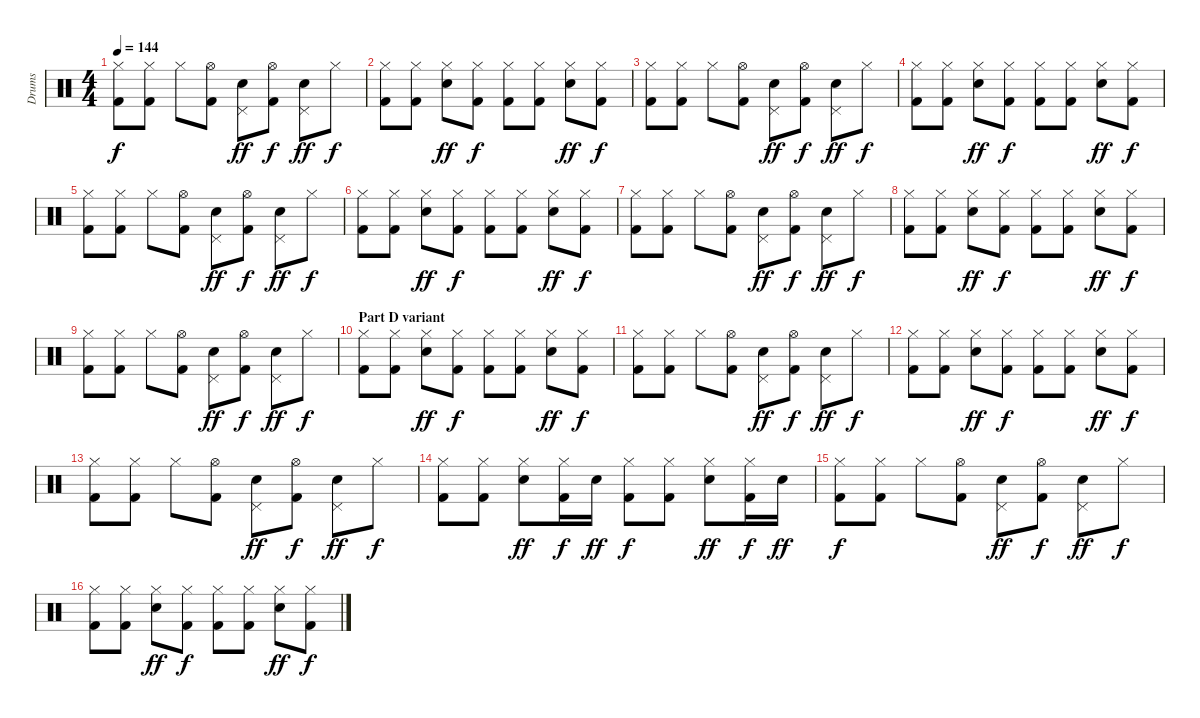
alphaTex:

\track ("Drums" "Drums") {instrument percussion}
\staff {score}
\articulation defaults
\ts (4 4)
\tempo 144
\clef neutral
\ks c
("Hi-Hat (closed)" "Kick (hit) 2").8{dy f} ("Hi-Hat (closed)" "Kick (hit) 2").8 "Hi-Hat (closed)".8 ("Hi-Hat (open)" "Kick (hit) 2").8 ("Pedal Hi-Hat (hit)" "Electric Snare (hit)").8{dy ff} ("Hi-Hat (open)" "Kick (hit) 2").8{dy f} ("Pedal Hi-Hat (hit)" "Electric Snare (hit)").8{dy ff} "Hi-Hat (closed)".8{dy f} |
("Hi-Hat (closed)" "Kick (hit) 2").8 ("Hi-Hat (closed)" "Kick (hit) 2").8 ("Hi-Hat (closed)" "Electric Snare (hit)").8{dy ff} ("Hi-Hat (closed)" "Kick (hit) 2").8{dy f} ("Hi-Hat (closed)" "Kick (hit) 2").8 ("Hi-Hat (closed)" "Kick (hit) 2").8 ("Hi-Hat (closed)" "Electric Snare (hit)").8{dy ff} ("Hi-Hat (closed)" "Kick (hit) 2").8{dy f} |
("Hi-Hat (closed)" "Kick (hit) 2").8 ("Hi-Hat (closed)" "Kick (hit) 2").8 "Hi-Hat (closed)".8 ("Hi-Hat (open)" "Kick (hit) 2").8 ("Pedal Hi-Hat (hit)" "Electric Snare (hit)").8{dy ff} ("Hi-Hat (open)" "Kick (hit) 2").8{dy f} ("Pedal Hi-Hat (hit)" "Electric Snare (hit)").8{dy ff} "Hi-Hat (closed)".8{dy f} |
("Hi-Hat (closed)" "Kick (hit) 2").8 ("Hi-Hat (closed)" "Kick (hit) 2").8 ("Hi-Hat (closed)" "Electric Snare (hit)").8{dy ff} ("Hi-Hat (closed)" "Kick (hit) 2").8{dy f} ("Hi-Hat (closed)" "Kick (hit) 2").8 ("Hi-Hat (closed)" "Kick (hit) 2").8 ("Hi-Hat (closed)" "Electric Snare (hit)").8{dy ff} ("Hi-Hat (closed)" "Kick (hit) 2").8{dy f} |
("Hi-Hat (closed)" "Kick (hit) 2").8 ("Hi-Hat (closed)" "Kick (hit) 2").8 "Hi-Hat (closed)".8 ("Hi-Hat (open)" "Kick (hit) 2").8 ("Pedal Hi-Hat (hit)" "Electric Snare (hit)").8{dy ff} ("Hi-Hat (open)" "Kick (hit) 2").8{dy f} ("Pedal Hi-Hat (hit)" "Electric Snare (hit)").8{dy ff} "Hi-Hat (closed)".8{dy f} |
("Hi-Hat (closed)" "Kick (hit) 2").8 ("Hi-Hat (closed)" "Kick (hit) 2").8 ("Hi-Hat (closed)" "Electric Snare (hit)").8{dy ff} ("Hi-Hat (closed)" "Kick (hit) 2").8{dy f} ("Hi-Hat (closed)" "Kick (hit) 2").8 ("Hi-Hat (closed)" "Kick (hit) 2").8 ("Hi-Hat (closed)" "Electric Snare (hit)").8{dy ff} ("Hi-Hat (closed)" "Kick (hit) 2").8{dy f} |
("Hi-Hat (closed)" "Kick (hit) 2").8 ("Hi-Hat (closed)" "Kick (hit) 2").8 "Hi-Hat (closed)".8 ("Hi-Hat (open)" "Kick (hit) 2").8 ("Pedal Hi-Hat (hit)" "Electric Snare (hit)").8{dy ff} ("Hi-Hat (open)" "Kick (hit) 2").8{dy f} ("Pedal Hi-Hat (hit)" "Electric Snare (hit)").8{dy ff} "Hi-Hat (closed)".8{dy f} |
("Hi-Hat (closed)" "Kick (hit) 2").8 ("Hi-Hat (closed)" "Kick (hit) 2").8 ("Hi-Hat (closed)" "Electric Snare (hit)").8{dy ff} ("Hi-Hat (closed)" "Kick (hit) 2").8{dy f} ("Hi-Hat (closed)" "Kick (hit) 2").8 ("Hi-Hat (closed)" "Kick (hit) 2").8 ("Hi-Hat (closed)" "Electric Snare (hit)").8{dy ff} ("Hi-Hat (closed)" "Kick (hit) 2").8{dy f} |
("Hi-Hat (closed)" "Kick (hit) 2").8 ("Hi-Hat (closed)" "Kick (hit) 2").8 "Hi-Hat (closed)".8 ("Hi-Hat (open)" "Kick (hit) 2").8 ("Pedal Hi-Hat (hit)" "Electric Snare (hit)").8{dy ff} ("Hi-Hat (open)" "Kick (hit) 2").8{dy f} ("Pedal Hi-Hat (hit)" "Electric Snare (hit)").8{dy ff} "Hi-Hat (closed)".8{dy f} |
\section ("" "Part D variant")
("Hi-Hat (closed)" "Kick (hit) 2").8 ("Hi-Hat (closed)" "Kick (hit) 2").8 ("Hi-Hat (closed)" "Electric Snare (hit)").8{dy ff} ("Hi-Hat (closed)" "Kick (hit) 2").8{dy f} ("Hi-Hat (closed)" "Kick (hit) 2").8 ("Hi-Hat (closed)" "Kick (hit) 2").8 ("Hi-Hat (closed)" "Electric Snare (hit)").8{dy ff} ("Hi-Hat (closed)" "Kick (hit) 2").8{dy f} |
("Hi-Hat (closed)" "Kick (hit) 2").8 ("Hi-Hat (closed)" "Kick (hit) 2").8 "Hi-Hat (closed)".8 ("Hi-Hat (open)" "Kick (hit) 2").8 ("Pedal Hi-Hat (hit)" "Electric Snare (hit)").8{dy ff} ("Hi-Hat (open)" "Kick (hit) 2").8{dy f} ("Pedal Hi-Hat (hit)" "Electric Snare (hit)").8{dy ff} "Hi-Hat (closed)".8{dy f} |
("Hi-Hat (closed)" "Kick (hit) 2").8 ("Hi-Hat (closed)" "Kick (hit) 2").8 ("Hi-Hat (closed)" "Electric Snare (hit)").8{dy ff} ("Hi-Hat (closed)" "Kick (hit) 2").8{dy f} ("Hi-Hat (closed)" "Kick (hit) 2").8 ("Hi-Hat (closed)" "Kick (hit) 2").8 ("Hi-Hat (closed)" "Electric Snare (hit)").8{dy ff} ("Hi-Hat (closed)" "Kick (hit) 2").8{dy f} |
("Hi-Hat (closed)" "Kick (hit) 2").8 ("Hi-Hat (closed)" "Kick (hit) 2").8 "Hi-Hat (closed)".8 ("Hi-Hat (open)" "Kick (hit) 2").8 ("Pedal Hi-Hat (hit)" "Electric Snare (hit)").8{dy ff} ("Hi-Hat (open)" "Kick (hit) 2").8{dy f} ("Pedal Hi-Hat (hit)" "Electric Snare (hit)").8{dy ff} "Hi-Hat (closed)".8{dy f} |
("Hi-Hat (closed)" "Kick (hit) 2").8 ("Hi-Hat (closed)" "Kick (hit) 2").8 ("Hi-Hat (closed)" "Electric Snare (hit)").8{dy ff} ("Hi-Hat (closed)" "Kick (hit) 2").16{dy f} "Electric Snare (hit)".16{dy ff} ("Hi-Hat (closed)" "Kick (hit) 2").8{dy f} ("Hi-Hat (closed)" "Kick (hit) 2").8 ("Hi-Hat (closed)" "Electric Snare (hit)").8{dy ff} ("Hi-Hat (closed)" "Kick (hit) 2").16{dy f} "Electric Snare (hit)".16{dy ff} |
("Hi-Hat (closed)" "Kick (hit) 2").8{dy f} ("Hi-Hat (closed)" "Kick (hit) 2").8 "Hi-Hat (closed)".8 ("Hi-Hat (open)" "Kick (hit) 2").8 ("Pedal Hi-Hat (hit)" "Electric Snare (hit)").8{dy ff} ("Hi-Hat (open)" "Kick (hit) 2").8{dy f} ("Pedal Hi-Hat (hit)" "Electric Snare (hit)").8{dy ff} "Hi-Hat (closed)".8{dy f} |
("Hi-Hat (closed)" "Kick (hit) 2").8 ("Hi-Hat (closed)" "Kick (hit) 2").8 ("Hi-Hat (closed)" "Electric Snare (hit)").8{dy ff} ("Hi-Hat (closed)" "Kick (hit) 2").8{dy f} ("Hi-Hat (closed)" "Kick (hit) 2").8 ("Hi-Hat (closed)" "Kick (hit) 2").8 ("Hi-Hat (closed)" "Electric Snare (hit)").8{dy ff} ("Hi-Hat (closed)" "Kick (hit) 2").8{dy f}
